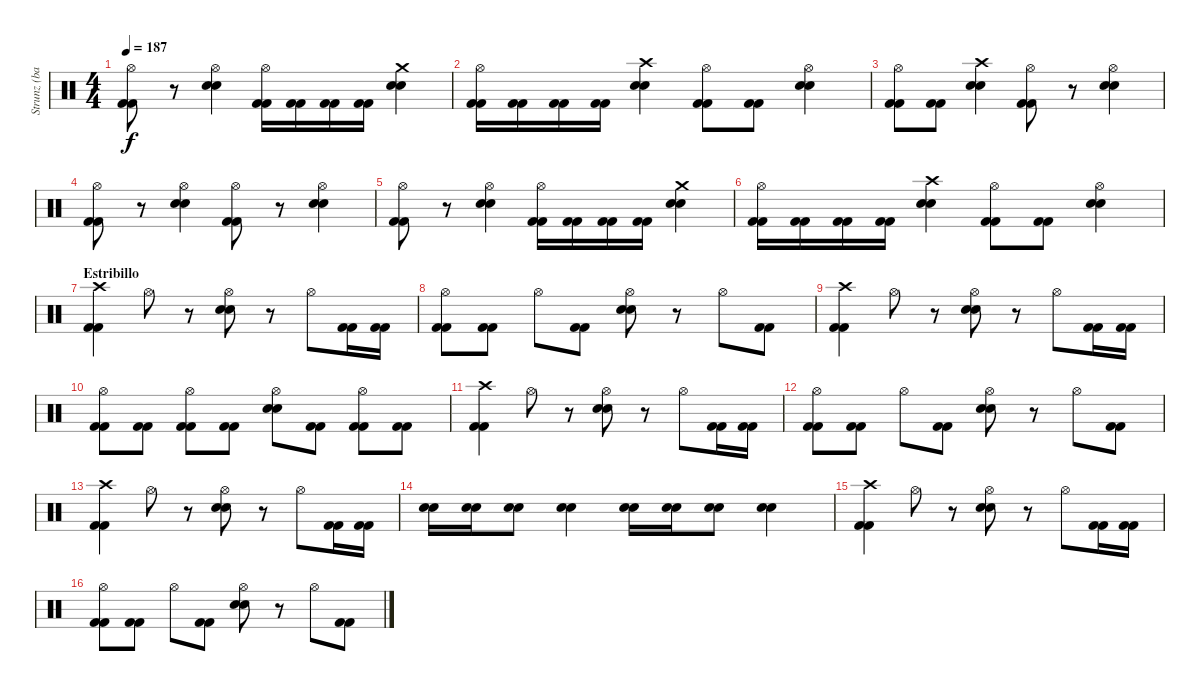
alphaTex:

\track ("Strunz (bateria)" "Strunz (ba") {instrument percussion}
\staff {score}
\articulation defaults
\ts (4 4)
\tempo 187
\clef neutral
\ks c
("Hi-Hat (open)" "Kick (hit) 2" "Kick (hit) 2").8{dy f} r.8 ("Hi-Hat (open)" "Snare (hit) 2" "Snare (hit) 2").4 ("Hi-Hat (open)" "Kick (hit) 2" "Kick (hit) 2").16 ("Kick (hit) 2" "Kick (hit) 2").16 ("Kick (hit) 2" "Kick (hit) 2").16 ("Kick (hit) 2" "Kick (hit) 2").16 ("Crash medium (hit)" "Snare (hit) 2" "Snare (hit) 2").4 |
("Hi-Hat (open)" "Kick (hit) 2" "Kick (hit) 2").16 ("Kick (hit) 2" "Kick (hit) 2").16 ("Kick (hit) 2" "Kick (hit) 2").16 ("Kick (hit) 2" "Kick (hit) 2").16 ("Crash high (hit)" "Snare (hit) 2" "Snare (hit) 2").4 ("Hi-Hat (open)" "Kick (hit) 2" "Kick (hit) 2").8 ("Kick (hit) 2" "Kick (hit) 2").8 ("Hi-Hat (open)" "Snare (hit) 2" "Snare (hit) 2").4 |
("Hi-Hat (open)" "Kick (hit) 2" "Kick (hit) 2").8 ("Kick (hit) 2" "Kick (hit) 2").8 ("Crash high (hit)" "Snare (hit) 2" "Snare (hit) 2").4 ("Hi-Hat (open)" "Kick (hit) 2" "Kick (hit) 2").8 r.8 ("Hi-Hat (open)" "Snare (hit) 2" "Snare (hit) 2").4 |
("Hi-Hat (open)" "Kick (hit) 2" "Kick (hit) 2").8 r.8 ("Hi-Hat (open)" "Snare (hit) 2" "Snare (hit) 2").4 ("Hi-Hat (open)" "Kick (hit) 2" "Kick (hit) 2").8 r.8 ("Hi-Hat (open)" "Snare (hit) 2" "Snare (hit) 2").4 |
("Hi-Hat (open)" "Kick (hit) 2" "Kick (hit) 2").8 r.8 ("Hi-Hat (open)" "Snare (hit) 2" "Snare (hit) 2").4 ("Hi-Hat (open)" "Kick (hit) 2" "Kick (hit) 2").16 ("Kick (hit) 2" "Kick (hit) 2").16 ("Kick (hit) 2" "Kick (hit) 2").16 ("Kick (hit) 2" "Kick (hit) 2").16 ("Crash medium (hit)" "Snare (hit) 2" "Snare (hit) 2").4 |
("Hi-Hat (open)" "Kick (hit) 2" "Kick (hit) 2").16 ("Kick (hit) 2" "Kick (hit) 2").16 ("Kick (hit) 2" "Kick (hit) 2").16 ("Kick (hit) 2" "Kick (hit) 2").16 ("Crash high (hit)" "Snare (hit) 2" "Snare (hit) 2").4 ("Hi-Hat (open)" "Kick (hit) 2" "Kick (hit) 2").8 ("Kick (hit) 2" "Kick (hit) 2").8 ("Hi-Hat (open)" "Snare (hit) 2" "Snare (hit) 2").4 |
\section ("" "Estribillo")
("Crash high (hit)" "Kick (hit) 2" "Kick (hit) 2").4 "Hi-Hat (open)".8 r.8 ("Hi-Hat (open)" "Snare (hit) 2" "Snare (hit) 2").8 r.8 "Hi-Hat (open)".8 ("Kick (hit) 2" "Kick (hit) 2").16 ("Kick (hit) 2" "Kick (hit) 2").16 |
("Hi-Hat (open)" "Kick (hit) 2" "Kick (hit) 2").8 ("Kick (hit) 2" "Kick (hit) 2").8 "Hi-Hat (open)".8 ("Kick (hit) 2" "Kick (hit) 2").8 ("Hi-Hat (open)" "Snare (hit) 2" "Snare (hit) 2").8 r.8 "Hi-Hat (open)".8 ("Kick (hit) 2" "Kick (hit) 2").8 |
("Crash high (hit)" "Kick (hit) 2" "Kick (hit) 2").4 "Hi-Hat (open)".8 r.8 ("Hi-Hat (open)" "Snare (hit) 2" "Snare (hit) 2").8 r.8 "Hi-Hat (open)".8 ("Kick (hit) 2" "Kick (hit) 2").16 ("Kick (hit) 2" "Kick (hit) 2").16 |
("Hi-Hat (open)" "Kick (hit) 2" "Kick (hit) 2").8 ("Kick (hit) 2" "Kick (hit) 2").8 ("Hi-Hat (open)" "Kick (hit) 2" "Kick (hit) 2").8 ("Kick (hit) 2" "Kick (hit) 2").8 ("Hi-Hat (open)" "Snare (hit) 2" "Snare (hit) 2").8 ("Kick (hit) 2" "Kick (hit) 2").8 ("Hi-Hat (open)" "Kick (hit) 2" "Kick (hit) 2").8 ("Kick (hit) 2" "Kick (hit) 2").8 |
("Crash high (hit)" "Kick (hit) 2" "Kick (hit) 2").4 "Hi-Hat (open)".8 r.8 ("Hi-Hat (open)" "Snare (hit) 2" "Snare (hit) 2").8 r.8 "Hi-Hat (open)".8 ("Kick (hit) 2" "Kick (hit) 2").16 ("Kick (hit) 2" "Kick (hit) 2").16 |
("Hi-Hat (open)" "Kick (hit) 2" "Kick (hit) 2").8 ("Kick (hit) 2" "Kick (hit) 2").8 "Hi-Hat (open)".8 ("Kick (hit) 2" "Kick (hit) 2").8 ("Hi-Hat (open)" "Snare (hit) 2" "Snare (hit) 2").8 r.8 "Hi-Hat (open)".8 ("Kick (hit) 2" "Kick (hit) 2").8 |
("Crash high (hit)" "Kick (hit) 2" "Kick (hit) 2").4 "Hi-Hat (open)".8 r.8 ("Hi-Hat (open)" "Snare (hit) 2" "Snare (hit) 2").8 r.8 "Hi-Hat (open)".8 ("Kick (hit) 2" "Kick (hit) 2").16 ("Kick (hit) 2" "Kick (hit) 2").16 |
("Electric Snare (hit)" "Electric Snare (hit)").16 ("Electric Snare (hit)" "Electric Snare (hit)").16 ("Electric Snare (hit)" "Electric Snare (hit)").8 ("Electric Snare (hit)" "Electric Snare (hit)").4 ("Electric Snare (hit)" "Electric Snare (hit)").16 ("Electric Snare (hit)" "Electric Snare (hit)").16 ("Electric Snare (hit)" "Electric Snare (hit)").8 ("Electric Snare (hit)" "Electric Snare (hit)").4 |
("Crash high (hit)" "Kick (hit) 2" "Kick (hit) 2").4 "Hi-Hat (open)".8 r.8 ("Hi-Hat (open)" "Snare (hit) 2" "Snare (hit) 2").8 r.8 "Hi-Hat (open)".8 ("Kick (hit) 2" "Kick (hit) 2").16 ("Kick (hit) 2" "Kick (hit) 2").16 |
("Hi-Hat (open)" "Kick (hit) 2" "Kick (hit) 2").8 ("Kick (hit) 2" "Kick (hit) 2").8 "Hi-Hat (open)".8 ("Kick (hit) 2" "Kick (hit) 2").8 ("Hi-Hat (open)" "Snare (hit) 2" "Snare (hit) 2").8 r.8 "Hi-Hat (open)".8 ("Kick (hit) 2" "Kick (hit) 2").8
